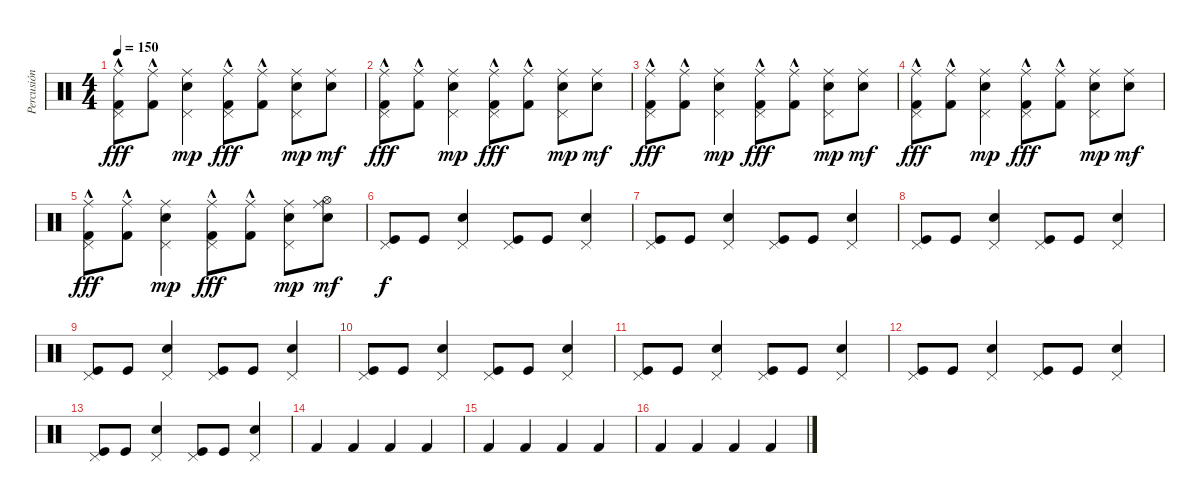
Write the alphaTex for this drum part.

\track ("Percusión" "Percusión") {instrument percussion}
\staff {score}
\articulation defaults
\ts (4 4)
\tempo 150
\clef neutral
\ks c
("Ride (middle)" "Pedal Hi-Hat (hit)" "Kick (hit) 2"{hac}).8{dy fff} ("Ride (middle)" "Kick (hit) 2"{hac}).8 ("Ride (middle)" "Pedal Hi-Hat (hit)" "Electric Snare (hit)").4{dy mp} ("Ride (middle)" "Pedal Hi-Hat (hit)" "Kick (hit) 2"{hac}).8{dy fff} ("Ride (middle)" "Kick (hit) 2"{hac}).8 ("Ride (middle)" "Pedal Hi-Hat (hit)" "Electric Snare (hit)").8{dy mp} ("Ride (middle)" "Electric Snare (hit)").8{dy mf} |
("Ride (middle)" "Pedal Hi-Hat (hit)" "Kick (hit) 2"{hac}).8{dy fff} ("Ride (middle)" "Kick (hit) 2"{hac}).8 ("Ride (middle)" "Pedal Hi-Hat (hit)" "Electric Snare (hit)").4{dy mp} ("Ride (middle)" "Pedal Hi-Hat (hit)" "Kick (hit) 2"{hac}).8{dy fff} ("Ride (middle)" "Kick (hit) 2"{hac}).8 ("Ride (middle)" "Pedal Hi-Hat (hit)" "Electric Snare (hit)").8{dy mp} ("Ride (middle)" "Electric Snare (hit)").8{dy mf} |
("Ride (middle)" "Pedal Hi-Hat (hit)" "Kick (hit) 2"{hac}).8{dy fff} ("Ride (middle)" "Kick (hit) 2"{hac}).8 ("Ride (middle)" "Pedal Hi-Hat (hit)" "Electric Snare (hit)").4{dy mp} ("Ride (middle)" "Pedal Hi-Hat (hit)" "Kick (hit) 2"{hac}).8{dy fff} ("Ride (middle)" "Kick (hit) 2"{hac}).8 ("Ride (middle)" "Pedal Hi-Hat (hit)" "Electric Snare (hit)").8{dy mp} ("Ride (middle)" "Electric Snare (hit)").8{dy mf} |
("Ride (middle)" "Pedal Hi-Hat (hit)" "Kick (hit) 2"{hac}).8{dy fff} ("Ride (middle)" "Kick (hit) 2"{hac}).8 ("Ride (middle)" "Pedal Hi-Hat (hit)" "Electric Snare (hit)").4{dy mp} ("Ride (middle)" "Pedal Hi-Hat (hit)" "Kick (hit) 2"{hac}).8{dy fff} ("Ride (middle)" "Kick (hit) 2"{hac}).8 ("Ride (middle)" "Pedal Hi-Hat (hit)" "Electric Snare (hit)").8{dy mp} ("Ride (middle)" "Electric Snare (hit)").8{dy mf} |
("Ride (middle)" "Pedal Hi-Hat (hit)" "Kick (hit) 2"{hac}).8{dy fff} ("Ride (middle)" "Kick (hit) 2"{hac}).8 ("Ride (middle)" "Pedal Hi-Hat (hit)" "Electric Snare (hit)").4{dy mp} ("Ride (middle)" "Pedal Hi-Hat (hit)" "Kick (hit) 2"{hac}).8{dy fff} ("Ride (middle)" "Kick (hit) 2"{hac}).8 ("Ride (middle)" "Pedal Hi-Hat (hit)" "Electric Snare (hit)").8{dy mp} ("Ride (middle)" "Hi-Hat (open)" "Electric Snare (hit)").8{dy mf} |
("Pedal Hi-Hat (hit)" "Kick (hit)").8{dy f} "Kick (hit)".8 ("Pedal Hi-Hat (hit)" "Snare (hit) 2").4 ("Pedal Hi-Hat (hit)" "Kick (hit)").8 "Kick (hit)".8 ("Pedal Hi-Hat (hit)" "Snare (hit) 2").4 |
("Pedal Hi-Hat (hit)" "Kick (hit)").8 "Kick (hit)".8 ("Pedal Hi-Hat (hit)" "Snare (hit) 2").4 ("Pedal Hi-Hat (hit)" "Kick (hit)").8 "Kick (hit)".8 ("Pedal Hi-Hat (hit)" "Snare (hit) 2").4 |
("Pedal Hi-Hat (hit)" "Kick (hit)").8 "Kick (hit)".8 ("Pedal Hi-Hat (hit)" "Snare (hit) 2").4 ("Pedal Hi-Hat (hit)" "Kick (hit)").8 "Kick (hit)".8 ("Pedal Hi-Hat (hit)" "Snare (hit) 2").4 |
("Pedal Hi-Hat (hit)" "Kick (hit)").8 "Kick (hit)".8 ("Pedal Hi-Hat (hit)" "Snare (hit) 2").4 ("Pedal Hi-Hat (hit)" "Kick (hit)").8 "Kick (hit)".8 ("Pedal Hi-Hat (hit)" "Snare (hit) 2").4 |
("Pedal Hi-Hat (hit)" "Kick (hit)").8 "Kick (hit)".8 ("Pedal Hi-Hat (hit)" "Snare (hit) 2").4 ("Pedal Hi-Hat (hit)" "Kick (hit)").8 "Kick (hit)".8 ("Pedal Hi-Hat (hit)" "Snare (hit) 2").4 |
("Pedal Hi-Hat (hit)" "Kick (hit)").8 "Kick (hit)".8 ("Pedal Hi-Hat (hit)" "Snare (hit) 2").4 ("Pedal Hi-Hat (hit)" "Kick (hit)").8 "Kick (hit)".8 ("Pedal Hi-Hat (hit)" "Snare (hit) 2").4 |
("Pedal Hi-Hat (hit)" "Kick (hit)").8 "Kick (hit)".8 ("Pedal Hi-Hat (hit)" "Snare (hit) 2").4 ("Pedal Hi-Hat (hit)" "Kick (hit)").8 "Kick (hit)".8 ("Pedal Hi-Hat (hit)" "Snare (hit) 2").4 |
("Pedal Hi-Hat (hit)" "Kick (hit)").8 "Kick (hit)".8 ("Pedal Hi-Hat (hit)" "Snare (hit) 2").4 ("Pedal Hi-Hat (hit)" "Kick (hit)").8 "Kick (hit)".8 ("Pedal Hi-Hat (hit)" "Snare (hit) 2").4 |
"Kick (hit) 2".4 "Kick (hit) 2".4 "Kick (hit) 2".4 "Kick (hit) 2".4 |
"Kick (hit) 2".4 "Kick (hit) 2".4 "Kick (hit) 2".4 "Kick (hit) 2".4 |
"Kick (hit) 2".4 "Kick (hit) 2".4 "Kick (hit) 2".4 "Kick (hit) 2".4
